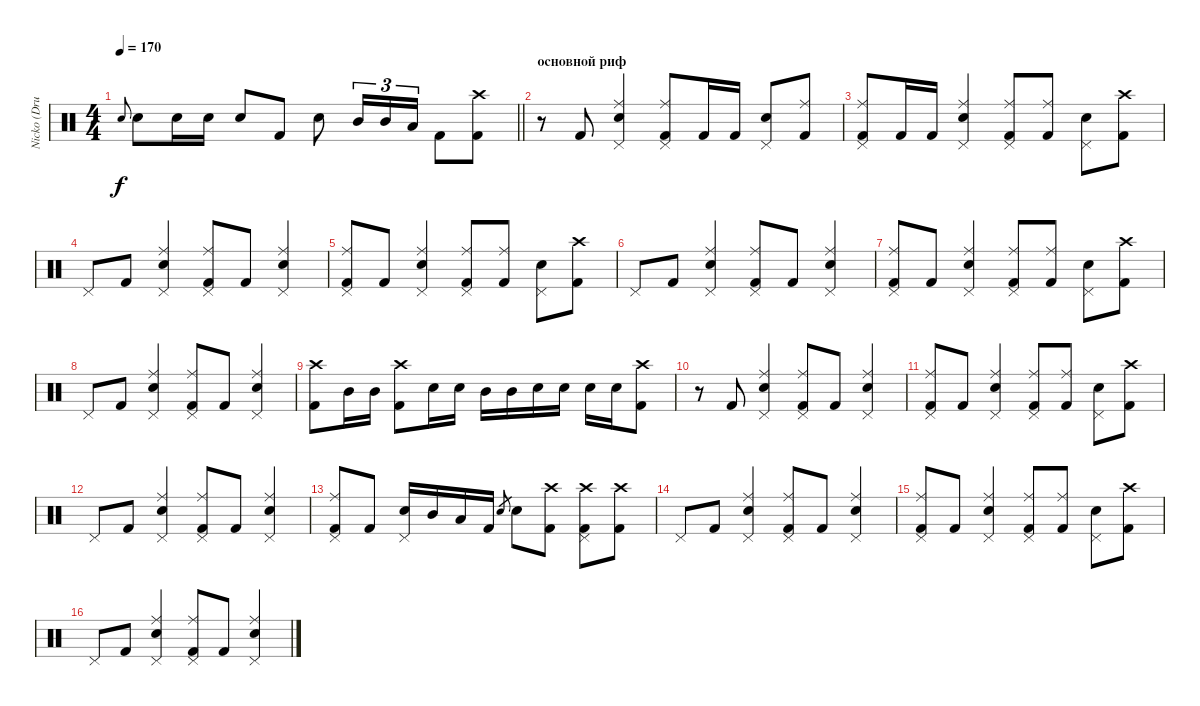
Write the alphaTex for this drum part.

\track ("Nicko (Drums)" "Nicko (Dru") {instrument percussion}
\staff {score}
\articulation defaults
\ts (4 4)
\tempo 170
\clef neutral
\barLineRight lightlight
\ks c "Snare (hit) 2".8{gr onbeat dy f} "Snare (hit) 2".8 "Snare (hit) 2".16 "Snare (hit) 2".16 "Snare (hit) 2".8 "Kick (hit) 2".8 "Snare (hit) 2".8 "Mid Tom (hit)".16{tu (3 2)} "Mid Tom (hit)".16{tu (3 2)} "Low Tom (hit)".16{tu (3 2)} "Kick (hit) 2".8
("Crash high (hit)" "Kick (hit) 2").8 |
\section ("" "основной риф")
r.8 "Kick (hit) 2".8 ("Ride (middle)" "Snare (hit) 2" "Pedal Hi-Hat (hit)").4 ("Ride (middle)" "Pedal Hi-Hat (hit)" "Kick (hit) 2").8 "Kick (hit) 2".16 "Kick (hit) 2".16 ("Snare (hit) 2" "Pedal Hi-Hat (hit)").8 ("Ride (middle)" "Kick (hit) 2").8 |
("Ride (middle)" "Pedal Hi-Hat (hit)" "Kick (hit) 2").8 "Kick (hit) 2".16 "Kick (hit) 2".16 ("Ride (middle)" "Snare (hit) 2" "Pedal Hi-Hat (hit)").4 ("Ride (middle)" "Pedal Hi-Hat (hit)" "Kick (hit) 2").8 ("Ride (middle)" "Kick (hit) 2").8 ("Snare (hit) 2" "Pedal Hi-Hat (hit)").8 ("Crash high (hit)" "Kick (hit) 2").8 |
"Pedal Hi-Hat (hit)".8 "Kick (hit) 2".8 ("Ride (middle)" "Snare (hit) 2" "Pedal Hi-Hat (hit)").4 ("Ride (middle)" "Pedal Hi-Hat (hit)" "Kick (hit) 2").8 "Kick (hit) 2".8 ("Ride (middle)" "Snare (hit) 2" "Pedal Hi-Hat (hit)").4 |
("Ride (middle)" "Pedal Hi-Hat (hit)" "Kick (hit) 2").8 "Kick (hit) 2".8 ("Ride (middle)" "Snare (hit) 2" "Pedal Hi-Hat (hit)").4 ("Ride (middle)" "Pedal Hi-Hat (hit)" "Kick (hit) 2").8 ("Ride (middle)" "Kick (hit) 2").8 ("Snare (hit) 2" "Pedal Hi-Hat (hit)").8 ("Crash high (hit)" "Kick (hit) 2").8 |
"Pedal Hi-Hat (hit)".8 "Kick (hit) 2".8 ("Ride (middle)" "Snare (hit) 2" "Pedal Hi-Hat (hit)").4 ("Ride (middle)" "Pedal Hi-Hat (hit)" "Kick (hit) 2").8 "Kick (hit) 2".8 ("Ride (middle)" "Snare (hit) 2" "Pedal Hi-Hat (hit)").4 |
("Ride (middle)" "Pedal Hi-Hat (hit)" "Kick (hit) 2").8 "Kick (hit) 2".8 ("Ride (middle)" "Snare (hit) 2" "Pedal Hi-Hat (hit)").4 ("Ride (middle)" "Pedal Hi-Hat (hit)" "Kick (hit) 2").8 ("Ride (middle)" "Kick (hit) 2").8 ("Snare (hit) 2" "Pedal Hi-Hat (hit)").8 ("Crash high (hit)" "Kick (hit) 2").8 |
"Pedal Hi-Hat (hit)".8 "Kick (hit) 2".8 ("Ride (middle)" "Snare (hit) 2" "Pedal Hi-Hat (hit)").4 ("Ride (middle)" "Pedal Hi-Hat (hit)" "Kick (hit) 2").8 "Kick (hit) 2".8 ("Ride (middle)" "Snare (hit) 2" "Pedal Hi-Hat (hit)").4 |
("Crash high (hit)" "Kick (hit) 2").8 "Mid Tom (hit)".16 "Mid Tom (hit)".16 ("Crash high (hit)" "Kick (hit) 2").8 "Snare (hit) 2".16 "Snare (hit) 2".16 "Mid Tom (hit)".16 "Mid Tom (hit)".16 "Snare (hit) 2".16 "Snare (hit) 2".16 "Snare (hit) 2".16 "Snare (hit) 2".16 ("Crash high (hit)" "Kick (hit) 2").8 |
r.8 "Kick (hit) 2".8 ("Ride (middle)" "Snare (hit) 2" "Pedal Hi-Hat (hit)").4 ("Ride (middle)" "Pedal Hi-Hat (hit)" "Kick (hit) 2").8 "Kick (hit) 2".8 ("Ride (middle)" "Snare (hit) 2" "Pedal Hi-Hat (hit)").4 |
("Ride (middle)" "Pedal Hi-Hat (hit)" "Kick (hit) 2").8 "Kick (hit) 2".8 ("Ride (middle)" "Snare (hit) 2" "Pedal Hi-Hat (hit)").4 ("Ride (middle)" "Pedal Hi-Hat (hit)" "Kick (hit) 2").8 ("Ride (middle)" "Kick (hit) 2").8 ("Snare (hit) 2" "Pedal Hi-Hat (hit)").8 ("Crash high (hit)" "Kick (hit) 2").8 |
"Pedal Hi-Hat (hit)".8 "Kick (hit) 2".8 ("Ride (middle)" "Snare (hit) 2" "Pedal Hi-Hat (hit)").4 ("Ride (middle)" "Pedal Hi-Hat (hit)" "Kick (hit) 2").8 "Kick (hit) 2".8 ("Ride (middle)" "Snare (hit) 2" "Pedal Hi-Hat (hit)").4 |
("Ride (middle)" "Pedal Hi-Hat (hit)" "Kick (hit) 2").8 "Kick (hit) 2".8 ("Snare (hit) 2" "Pedal Hi-Hat (hit)").16 "Mid Tom (hit)".16 "Low Tom (hit)".16 "Kick (hit) 2".16 "Snare (hit) 2".8{gr} "Snare (hit) 2".8 ("Crash high (hit)" "Kick (hit) 2").8 ("Crash high (hit)" "Pedal Hi-Hat (hit)" "Kick (hit) 2").8 ("Crash high (hit)" "Kick (hit) 2").8 |
"Pedal Hi-Hat (hit)".8 "Kick (hit) 2".8 ("Ride (middle)" "Snare (hit) 2" "Pedal Hi-Hat (hit)").4 ("Ride (middle)" "Pedal Hi-Hat (hit)" "Kick (hit) 2").8 "Kick (hit) 2".8 ("Ride (middle)" "Snare (hit) 2" "Pedal Hi-Hat (hit)").4 |
("Ride (middle)" "Pedal Hi-Hat (hit)" "Kick (hit) 2").8 "Kick (hit) 2".8 ("Ride (middle)" "Snare (hit) 2" "Pedal Hi-Hat (hit)").4 ("Ride (middle)" "Pedal Hi-Hat (hit)" "Kick (hit) 2").8 ("Ride (middle)" "Kick (hit) 2").8 ("Snare (hit) 2" "Pedal Hi-Hat (hit)").8 ("Crash high (hit)" "Kick (hit) 2").8 |
"Pedal Hi-Hat (hit)".8 "Kick (hit) 2".8 ("Ride (middle)" "Snare (hit) 2" "Pedal Hi-Hat (hit)").4 ("Ride (middle)" "Pedal Hi-Hat (hit)" "Kick (hit) 2").8 "Kick (hit) 2".8 ("Ride (middle)" "Snare (hit) 2" "Pedal Hi-Hat (hit)").4
